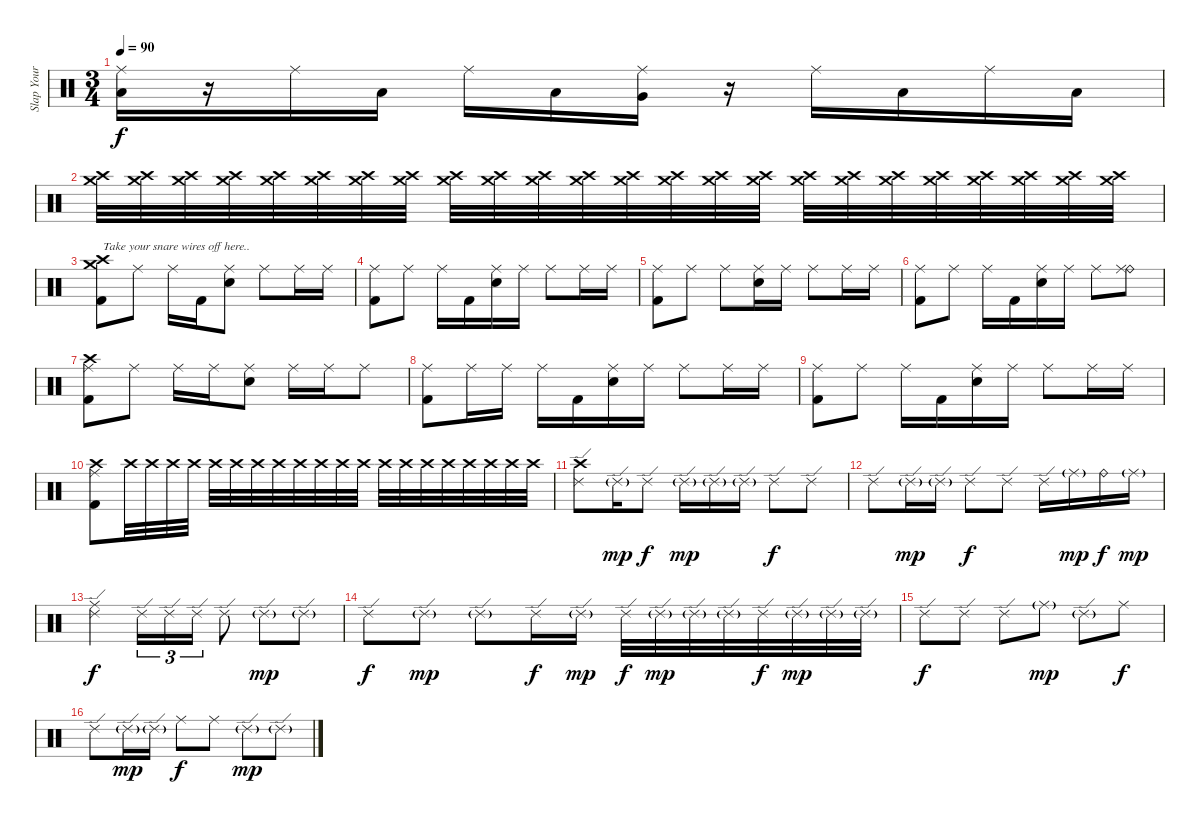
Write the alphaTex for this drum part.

\track ("Slap Your Sticks" "Slap Your ") {instrument percussion}
\staff {score}
\articulation defaults
\ts (3 4)
\tempo 90
\clef neutral
\ks c
("Ride (middle)" "Low Floor Tom (hit)").16{dy f} r.16 "Ride (middle)".16 "Low Floor Tom (hit)".16 "Ride (middle)".16 "Low Floor Tom (hit)".16 ("Ride (middle)" "Very Low Tom (hit)").16 r.16 "Ride (middle)".16 "Low Floor Tom (hit)".16 "Ride (middle)".16 "Low Floor Tom (hit)".16 |
("Crash high (hit)" "Crash medium (hit)").32{volume 2} ("Crash high (hit)" "Crash medium (hit)").32{volume 12} ("Crash high (hit)" "Crash medium (hit)").32 ("Crash high (hit)" "Crash medium (hit)").32 ("Crash high (hit)" "Crash medium (hit)").32 ("Crash high (hit)" "Crash medium (hit)").32 ("Crash high (hit)" "Crash medium (hit)").32 ("Crash high (hit)" "Crash medium (hit)").32 ("Crash high (hit)" "Crash medium (hit)").32 ("Crash high (hit)" "Crash medium (hit)").32 ("Crash high (hit)" "Crash medium (hit)").32 ("Crash high (hit)" "Crash medium (hit)").32 ("Crash high (hit)" "Crash medium (hit)").32 ("Crash high (hit)" "Crash medium (hit)").32 ("Crash high (hit)" "Crash medium (hit)").32 ("Crash high (hit)" "Crash medium (hit)").32 ("Crash high (hit)" "Crash medium (hit)").32 ("Crash high (hit)" "Crash medium (hit)").32 ("Crash high (hit)" "Crash medium (hit)").32 ("Crash high (hit)" "Crash medium (hit)").32 ("Crash high (hit)" "Crash medium (hit)").32 ("Crash high (hit)" "Crash medium (hit)").32 ("Crash high (hit)" "Crash medium (hit)").32 ("Crash high (hit)" "Crash medium (hit)").32 |
("Crash high (hit)" "Crash medium (hit)" "Kick (hit) 2").8{txt "Take your snare wires off here.."} "Ride (middle)".8 "Ride (middle)".16 "Kick (hit) 2".16 ("Ride (middle)" "Electric Snare (hit)").8 "Ride (middle)".8 "Ride (middle)".16 "Ride (middle)".16 |
("Ride (middle)" "Kick (hit) 2").8 "Ride (middle)".8 "Ride (middle)".16 "Kick (hit) 2".16 ("Ride (middle)" "Electric Snare (hit)").16 "Ride (middle)".16 "Ride (middle)".8 "Ride (middle)".16 "Ride (middle)".16 |
("Ride (middle)" "Kick (hit) 2").8 "Ride (middle)".8 "Ride (middle)".8 ("Ride (middle)" "Electric Snare (hit)").16 "Ride (middle)".16 "Ride (middle)".8 "Ride (middle)".16 "Ride (middle)".16 |
("Ride (middle)" "Kick (hit) 2").8 "Ride (middle)".8 "Ride (middle)".16 "Kick (hit) 2".16 ("Ride (middle)" "Electric Snare (hit)").16 "Ride (middle)".16 "Ride (middle)".8 ("Ride (bell)" "Ride (middle)").8 |
("Crash high (hit)" "Ride (middle)" "Kick (hit) 2").8 "Ride (middle)".8 "Ride (middle)".16 "Ride (middle)".16 ("Ride (middle)" "Electric Snare (hit)").8 "Ride (middle)".16 "Ride (middle)".16 "Ride (middle)".8 |
("Ride (middle)" "Kick (hit) 2").8 "Ride (middle)".16 "Ride (middle)".16 "Ride (middle)".16 "Kick (hit) 2".16 ("Ride (middle)" "Electric Snare (hit)").16 "Ride (middle)".16 "Ride (middle)".8 "Ride (middle)".16 "Ride (middle)".16 |
("Ride (middle)" "Kick (hit) 2").8 "Ride (middle)".8 "Ride (middle)".16 "Kick (hit) 2".16 ("Ride (middle)" "Electric Snare (hit)").16 "Ride (middle)".16 "Ride (middle)".8 "Ride (middle)".16 "Ride (middle)".16 |
("Crash high (hit)" "Ride (middle)" "Kick (hit) 2").8 "Crash high (hit)".32{volume 3} "Crash high (hit)".32{volume 12} "Crash high (hit)".32 "Crash high (hit)".32 "Crash high (hit)".32 "Crash high (hit)".32 "Crash high (hit)".32 "Crash high (hit)".32 "Crash high (hit)".32 "Crash high (hit)".32 "Crash high (hit)".32 "Crash high (hit)".32 "Crash high (hit)".32 "Crash high (hit)".32 "Crash high (hit)".32 "Crash high (hit)".32 "Crash high (hit)".32 "Crash high (hit)".32 "Crash high (hit)".32 "Crash high (hit)".32 |
("Crash high (hit)" "Ride (edge) 2").8 "Ride (edge) 2"{g}.16{dy mp} "Ride (edge) 2".8{dy f} "Ride (edge) 2"{g}.16{dy mp} "Ride (edge) 2"{g}.16 "Ride (edge) 2"{g}.16 "Ride (edge) 2".8{dy f} "Ride (edge) 2".8 |
"Ride (edge) 2".8 "Ride (edge) 2"{g}.16{dy mp} "Ride (edge) 2"{g}.16 "Ride (edge) 2".8{dy f} "Ride (edge) 2".8 "Ride (edge) 2".16 "Ride (middle)"{g}.16{dy mp} "Ride (bell)".16{dy f} "Ride (middle)"{g}.16{dy mp} |
("Ride (middle)" "Ride (edge) 2").4{dy f} "Ride (edge) 2".16{tu (3 2)} "Ride (edge) 2".16{tu (3 2)} "Ride (edge) 2".16{tu (3 2)} "Ride (edge) 2".8 "Ride (edge) 2"{g}.8{dy mp} "Ride (edge) 2"{g}.8 |
"Ride (edge) 2".8{dy f} "Ride (edge) 2"{g}.8{dy mp} "Ride (edge) 2"{g}.8 "Ride (edge) 2".16{dy f} "Ride (edge) 2"{g}.16{dy mp} "Ride (edge) 2".32{dy f} "Ride (edge) 2"{g}.32{dy mp} "Ride (edge) 2"{g}.32 "Ride (edge) 2"{g}.32 "Ride (edge) 2".32{dy f} "Ride (edge) 2"{g}.32{dy mp} "Ride (edge) 2"{g}.32 "Ride (edge) 2"{g}.32 |
"Ride (edge) 2".8{dy f} "Ride (edge) 2".8 "Ride (edge) 2".8 "Ride (middle)"{g}.8{dy mp} "Ride (edge) 2"{g}.8 "Ride (middle)".8{dy f} |
"Ride (edge) 2".8 "Ride (edge) 2"{g}.16{dy mp} "Ride (edge) 2"{g}.16 "Ride (middle)".8{dy f} "Ride (middle)".8 "Ride (edge) 2"{g}.8{dy mp} "Ride (edge) 2"{g}.8
